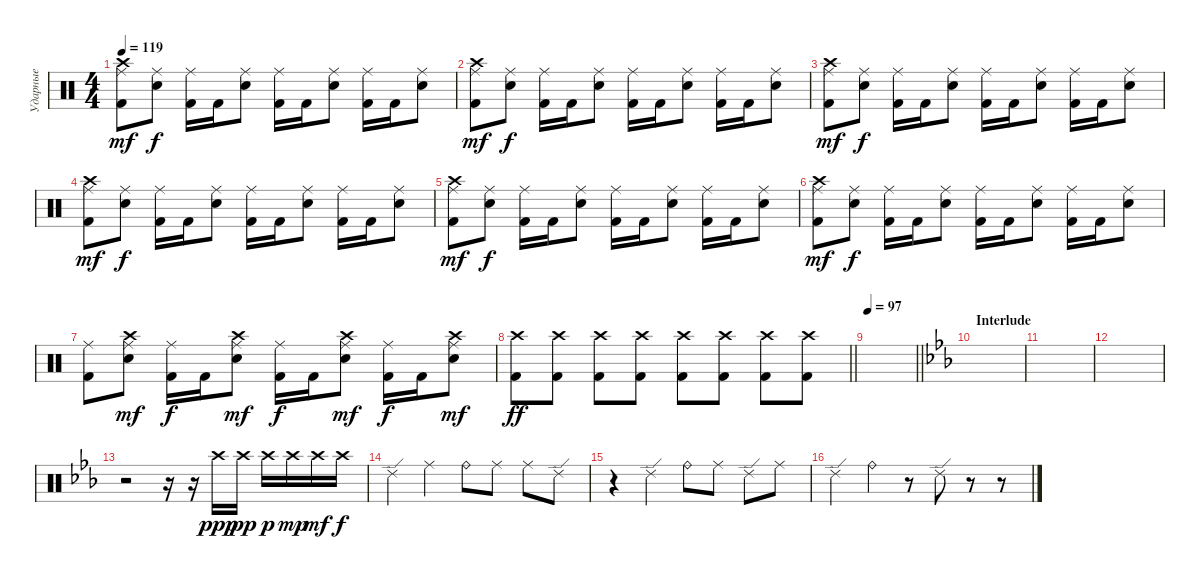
\track ("Ударные" "Ударные") {instrument percussion}
\staff {score}
\articulation defaults
\ts (4 4)
\tempo 119
\clef neutral
\ks c
("Ride (middle)" "Crash high (hit)" "Kick (hit) 2").8{dy mf} ("Ride (middle)" "Electric Snare (hit)").8{dy f} ("Ride (middle)" "Kick (hit) 2").16 "Kick (hit) 2".16 ("Ride (middle)" "Electric Snare (hit)").8 ("Ride (middle)" "Kick (hit) 2").16 "Kick (hit) 2".16 ("Ride (middle)" "Electric Snare (hit)").8 ("Ride (middle)" "Kick (hit) 2").16 "Kick (hit) 2".16 ("Ride (middle)" "Electric Snare (hit)").8 |
("Ride (middle)" "Crash high (hit)" "Kick (hit) 2").8{dy mf} ("Ride (middle)" "Electric Snare (hit)").8{dy f} ("Ride (middle)" "Kick (hit) 2").16 "Kick (hit) 2".16 ("Ride (middle)" "Electric Snare (hit)").8 ("Ride (middle)" "Kick (hit) 2").16 "Kick (hit) 2".16 ("Ride (middle)" "Electric Snare (hit)").8 ("Ride (middle)" "Kick (hit) 2").16 "Kick (hit) 2".16 ("Ride (middle)" "Electric Snare (hit)").8 |
("Ride (middle)" "Crash high (hit)" "Kick (hit) 2").8{dy mf} ("Ride (middle)" "Electric Snare (hit)").8{dy f} ("Ride (middle)" "Kick (hit) 2").16 "Kick (hit) 2".16 ("Ride (middle)" "Electric Snare (hit)").8 ("Ride (middle)" "Kick (hit) 2").16 "Kick (hit) 2".16 ("Ride (middle)" "Electric Snare (hit)").8 ("Ride (middle)" "Kick (hit) 2").16 "Kick (hit) 2".16 ("Ride (middle)" "Electric Snare (hit)").8 |
("Ride (middle)" "Crash high (hit)" "Kick (hit) 2").8{dy mf} ("Ride (middle)" "Electric Snare (hit)").8{dy f} ("Ride (middle)" "Kick (hit) 2").16 "Kick (hit) 2".16 ("Ride (middle)" "Electric Snare (hit)").8 ("Ride (middle)" "Kick (hit) 2").16 "Kick (hit) 2".16 ("Ride (middle)" "Electric Snare (hit)").8 ("Ride (middle)" "Kick (hit) 2").16 "Kick (hit) 2".16 ("Ride (middle)" "Electric Snare (hit)").8 |
("Ride (middle)" "Crash high (hit)" "Kick (hit) 2").8{dy mf} ("Ride (middle)" "Electric Snare (hit)").8{dy f} ("Ride (middle)" "Kick (hit) 2").16 "Kick (hit) 2".16 ("Ride (middle)" "Electric Snare (hit)").8 ("Ride (middle)" "Kick (hit) 2").16 "Kick (hit) 2".16 ("Ride (middle)" "Electric Snare (hit)").8 ("Ride (middle)" "Kick (hit) 2").16 "Kick (hit) 2".16 ("Ride (middle)" "Electric Snare (hit)").8 |
("Ride (middle)" "Crash high (hit)" "Kick (hit) 2").8{dy mf} ("Ride (middle)" "Electric Snare (hit)").8{dy f} ("Ride (middle)" "Kick (hit) 2").16 "Kick (hit) 2".16 ("Ride (middle)" "Electric Snare (hit)").8 ("Ride (middle)" "Kick (hit) 2").16 "Kick (hit) 2".16 ("Ride (middle)" "Electric Snare (hit)").8 ("Ride (middle)" "Kick (hit) 2").16 "Kick (hit) 2".16 ("Ride (middle)" "Electric Snare (hit)").8 |
("Ride (middle)" "Kick (hit) 2").8 ("Ride (middle)" "Crash high (hit)" "Electric Snare (hit)").8{dy mf} ("Ride (middle)" "Kick (hit) 2").16{dy f} "Kick (hit) 2".16 ("Ride (middle)" "Crash high (hit)" "Electric Snare (hit)").8{dy mf} ("Ride (middle)" "Kick (hit) 2").16{dy f} "Kick (hit) 2".16 ("Ride (middle)" "Crash high (hit)" "Electric Snare (hit)").8{dy mf} ("Ride (middle)" "Kick (hit) 2").16{dy f} "Kick (hit) 2".16 ("Ride (middle)" "Crash high (hit)" "Electric Snare (hit)").8{dy mf} |
\barLineRight lightlight
("Crash high (hit)" "Kick (hit) 2").8{dy ff} ("Crash high (hit)" "Kick (hit) 2").8 ("Crash high (hit)" "Kick (hit) 2").8 ("Crash high (hit)" "Kick (hit) 2").8 ("Crash high (hit)" "Kick (hit) 2").8 ("Crash high (hit)" "Kick (hit) 2").8 ("Crash high (hit)" "Kick (hit) 2").8 ("Crash high (hit)" "Kick (hit) 2").8 |
\tempo 97
\barLineRight lightlight
|
\section ("" "Interlude")
\ks eb
|
|
|
r.2 r.16 r.16 "Crash high (hit)".16{dy ppp} "Crash high (hit)".16{dy pp} "Crash high (hit)".16{dy p} "Crash high (hit)".16{dy mp} "Crash high (hit)".16{dy mf} "Crash high (hit)".16{dy f} |
"Ride (edge) 2".4 "Ride (middle)".4 "Ride (bell)".8 "Ride (middle)".8 "Ride (middle)".8 "Ride (edge) 2".8 |
r.4 "Ride (edge) 2".4 "Ride (bell)".8 "Ride (middle)".8 "Ride (edge) 2".8 "Ride (middle)".8 |
"Ride (edge) 2".4 "Ride (bell)".4 r.8 "Ride (edge) 2".8 r.8 r.8
